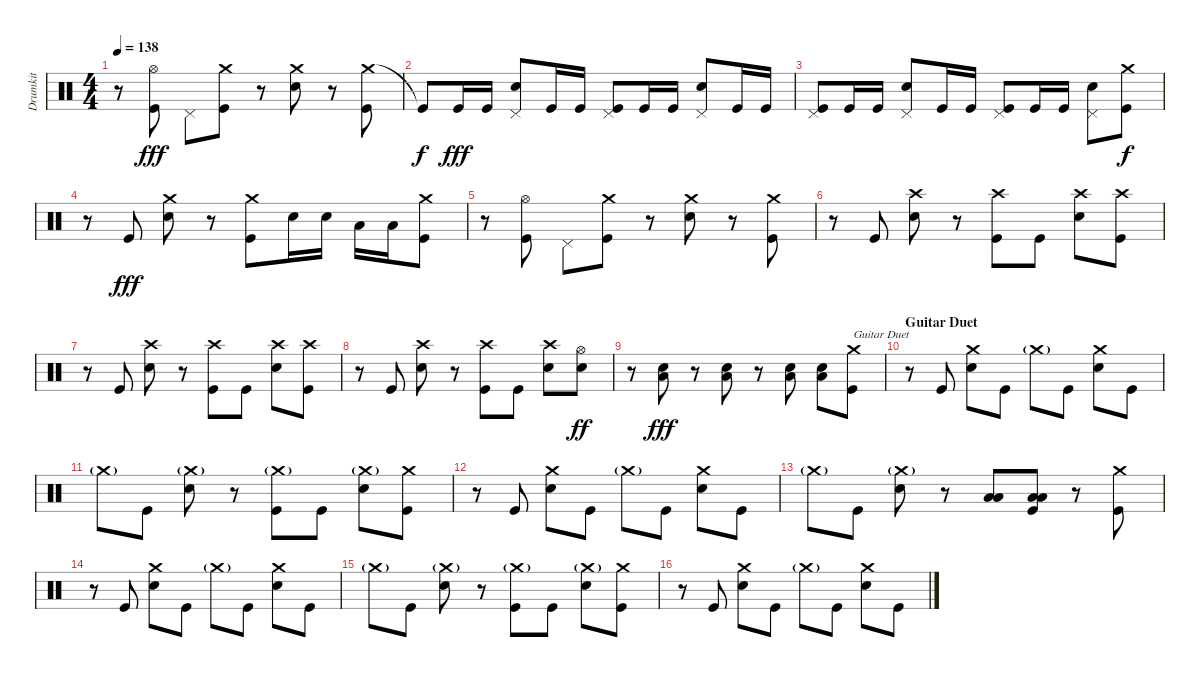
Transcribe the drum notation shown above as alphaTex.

\track ("Drumkit" "Drumkit") {instrument percussion}
\staff {score}
\articulation defaults
\ts (4 4)
\tempo 138
\clef neutral
\ks c
r.8{dy fff} ("Hi-Hat (open)" "Kick (hit)").8 "Pedal Hi-Hat (hit)".8 ("Crash medium (hit)" "Kick (hit)").8 r.8 ("Crash medium (hit)" "Snare (hit) 2").8 r.8 ("Crash medium (hit)" "Kick (hit)").8 |
"Kick (hit)"{t}.8{dy f} "Kick (hit)".16{dy fff} "Kick (hit)".16 ("Pedal Hi-Hat (hit)" "Snare (hit) 2").8 "Kick (hit)".16 "Kick (hit)".16 ("Pedal Hi-Hat (hit)" "Kick (hit)").8 "Kick (hit)".16 "Kick (hit)".16 ("Pedal Hi-Hat (hit)" "Snare (hit) 2").8 "Kick (hit)".16 "Kick (hit)".16 |
("Pedal Hi-Hat (hit)" "Kick (hit)").8 "Kick (hit)".16 "Kick (hit)".16 ("Pedal Hi-Hat (hit)" "Snare (hit) 2").8 "Kick (hit)".16 "Kick (hit)".16 ("Pedal Hi-Hat (hit)" "Kick (hit)").8 "Kick (hit)".16 "Kick (hit)".16 ("Pedal Hi-Hat (hit)" "Snare (hit) 2").8 ("Crash medium (hit)" "Kick (hit)").8{dy f} |
r.8 "Kick (hit)".8{dy fff} ("Crash medium (hit)" "Snare (hit) 2").8 r.8 ("Crash medium (hit)" "Kick (hit)").8 "Snare (hit) 2".16 "Snare (hit) 2".16 "Low Tom (hit)".16 "Low Floor Tom (hit)".16 ("Crash medium (hit)" "Kick (hit)").8 |
r.8 ("Hi-Hat (open)" "Kick (hit)").8 "Pedal Hi-Hat (hit)".8 ("Crash medium (hit)" "Kick (hit)").8 r.8 ("Crash medium (hit)" "Snare (hit) 2").8 r.8 ("Crash medium (hit)" "Kick (hit)").8 |
r.8 "Kick (hit)".8 ("Crash high (hit)" "Snare (hit) 2").8 r.8 ("Crash high (hit)" "Kick (hit)").8 "Kick (hit)".8 ("Crash high (hit)" "Snare (hit) 2").8 ("Crash high (hit)" "Kick (hit)").8 |
r.8 "Kick (hit)".8 ("Crash high (hit)" "Snare (hit) 2").8 r.8 ("Crash high (hit)" "Kick (hit)").8 "Kick (hit)".8 ("Crash high (hit)" "Snare (hit) 2").8 ("Crash high (hit)" "Kick (hit)").8 |
r.8 "Kick (hit)".8 ("Crash high (hit)" "Snare (hit) 2").8 r.8 ("Crash high (hit)" "Kick (hit)").8 "Kick (hit)".8 ("Crash high (hit)" "Snare (hit) 2").8 ("Hi-Hat (open)" "Snare (hit) 2").8{dy ff} |
r.8 ("Low Floor Tom (hit)" "Snare (hit) 2").8{dy fff} r.8 ("Low Floor Tom (hit)" "Snare (hit) 2").8 r.8 ("Low Tom (hit)" "Snare (hit) 2").8 ("Low Tom (hit)" "Snare (hit) 2").8 ("Crash medium (hit)" "Kick (hit)").8{txt "Guitar Duet"} |
\section ("" "Guitar Duet")
r.8 "Kick (hit)".8 ("Crash medium (hit)" "Snare (hit) 2").8 "Kick (hit)".8 "Crash medium (hit)"{g}.8 "Kick (hit)".8 ("Crash medium (hit)" "Snare (hit) 2").8 "Kick (hit)".8 |
"Crash medium (hit)"{g}.8 "Kick (hit)".8 ("Crash medium (hit)"{g} "Snare (hit) 2").8 r.8 ("Crash medium (hit)"{g} "Kick (hit)").8 "Kick (hit)".8 ("Crash medium (hit)"{g} "Snare (hit) 2").8 ("Crash medium (hit)" "Kick (hit)").8 |
r.8 "Kick (hit)".8 ("Crash medium (hit)" "Snare (hit) 2").8 "Kick (hit)".8 "Crash medium (hit)"{g}.8 "Kick (hit)".8 ("Crash medium (hit)" "Snare (hit) 2").8 "Kick (hit)".8 |
"Crash medium (hit)"{g}.8 "Kick (hit)".8 ("Crash medium (hit)"{g} "Snare (hit) 2").8 r.8 ("Low Floor Tom (hit)" "Low Tom (hit)").8 ("Low Floor Tom (hit)" "Low Tom (hit)" "Kick (hit)").8 r.8 ("Crash medium (hit)" "Kick (hit)").8 |
r.8 "Kick (hit)".8 ("Crash medium (hit)" "Snare (hit) 2").8 "Kick (hit)".8 "Crash medium (hit)"{g}.8 "Kick (hit)".8 ("Crash medium (hit)" "Snare (hit) 2").8 "Kick (hit)".8 |
"Crash medium (hit)"{g}.8 "Kick (hit)".8 ("Crash medium (hit)"{g} "Snare (hit) 2").8 r.8 ("Crash medium (hit)"{g} "Kick (hit)").8 "Kick (hit)".8 ("Crash medium (hit)"{g} "Snare (hit) 2").8 ("Crash medium (hit)" "Kick (hit)").8 |
r.8 "Kick (hit)".8 ("Crash medium (hit)" "Snare (hit) 2").8 "Kick (hit)".8 "Crash medium (hit)"{g}.8 "Kick (hit)".8 ("Crash medium (hit)" "Snare (hit) 2").8 "Kick (hit)".8
